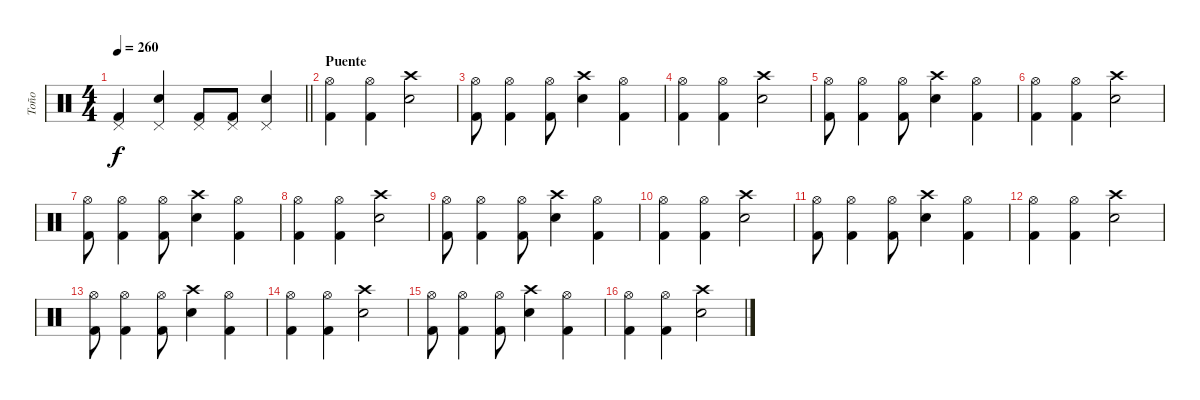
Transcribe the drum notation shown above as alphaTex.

\track ("Toño" "Toño") {instrument percussion}
\staff {score}
\articulation defaults
\ts (4 4)
\tempo 260
\clef neutral
\barLineRight lightlight
\ks c
("Pedal Hi-Hat (hit)" "Kick (hit) 2").4{dy f} ("Pedal Hi-Hat (hit)" "Electric Snare (hit)").4 ("Pedal Hi-Hat (hit)" "Kick (hit) 2").8 ("Pedal Hi-Hat (hit)" "Kick (hit) 2").8 ("Pedal Hi-Hat (hit)" "Electric Snare (hit)").4 |
\section ("" "Puente")
("Hi-Hat (open)" "Kick (hit) 2").4 ("Hi-Hat (open)" "Kick (hit) 2").4 ("Crash high (hit)" "Electric Snare (hit)").2 |
("Hi-Hat (open)" "Kick (hit) 2").8 ("Hi-Hat (open)" "Kick (hit) 2").4 ("Hi-Hat (open)" "Kick (hit) 2").8 ("Crash high (hit)" "Electric Snare (hit)").4 ("Hi-Hat (open)" "Kick (hit) 2").4 |
("Hi-Hat (open)" "Kick (hit) 2").4 ("Hi-Hat (open)" "Kick (hit) 2").4 ("Crash high (hit)" "Electric Snare (hit)").2 |
("Hi-Hat (open)" "Kick (hit) 2").8 ("Hi-Hat (open)" "Kick (hit) 2").4 ("Hi-Hat (open)" "Kick (hit) 2").8 ("Crash high (hit)" "Electric Snare (hit)").4 ("Hi-Hat (open)" "Kick (hit) 2").4 |
("Hi-Hat (open)" "Kick (hit) 2").4 ("Hi-Hat (open)" "Kick (hit) 2").4 ("Crash high (hit)" "Electric Snare (hit)").2 |
("Hi-Hat (open)" "Kick (hit) 2").8 ("Hi-Hat (open)" "Kick (hit) 2").4 ("Hi-Hat (open)" "Kick (hit) 2").8 ("Crash high (hit)" "Electric Snare (hit)").4 ("Hi-Hat (open)" "Kick (hit) 2").4 |
("Hi-Hat (open)" "Kick (hit) 2").4 ("Hi-Hat (open)" "Kick (hit) 2").4 ("Crash high (hit)" "Electric Snare (hit)").2 |
("Hi-Hat (open)" "Kick (hit) 2").8 ("Hi-Hat (open)" "Kick (hit) 2").4 ("Hi-Hat (open)" "Kick (hit) 2").8 ("Crash high (hit)" "Electric Snare (hit)").4 ("Hi-Hat (open)" "Kick (hit) 2").4 |
("Hi-Hat (open)" "Kick (hit) 2").4 ("Hi-Hat (open)" "Kick (hit) 2").4 ("Crash high (hit)" "Electric Snare (hit)").2 |
("Hi-Hat (open)" "Kick (hit) 2").8 ("Hi-Hat (open)" "Kick (hit) 2").4 ("Hi-Hat (open)" "Kick (hit) 2").8 ("Crash high (hit)" "Electric Snare (hit)").4 ("Hi-Hat (open)" "Kick (hit) 2").4 |
("Hi-Hat (open)" "Kick (hit) 2").4 ("Hi-Hat (open)" "Kick (hit) 2").4 ("Crash high (hit)" "Electric Snare (hit)").2 |
("Hi-Hat (open)" "Kick (hit) 2").8 ("Hi-Hat (open)" "Kick (hit) 2").4 ("Hi-Hat (open)" "Kick (hit) 2").8 ("Crash high (hit)" "Electric Snare (hit)").4 ("Hi-Hat (open)" "Kick (hit) 2").4 |
("Hi-Hat (open)" "Kick (hit) 2").4 ("Hi-Hat (open)" "Kick (hit) 2").4 ("Crash high (hit)" "Electric Snare (hit)").2 |
("Hi-Hat (open)" "Kick (hit) 2").8 ("Hi-Hat (open)" "Kick (hit) 2").4 ("Hi-Hat (open)" "Kick (hit) 2").8 ("Crash high (hit)" "Electric Snare (hit)").4 ("Hi-Hat (open)" "Kick (hit) 2").4 |
("Hi-Hat (open)" "Kick (hit) 2").4 ("Hi-Hat (open)" "Kick (hit) 2").4 ("Crash high (hit)" "Electric Snare (hit)").2
